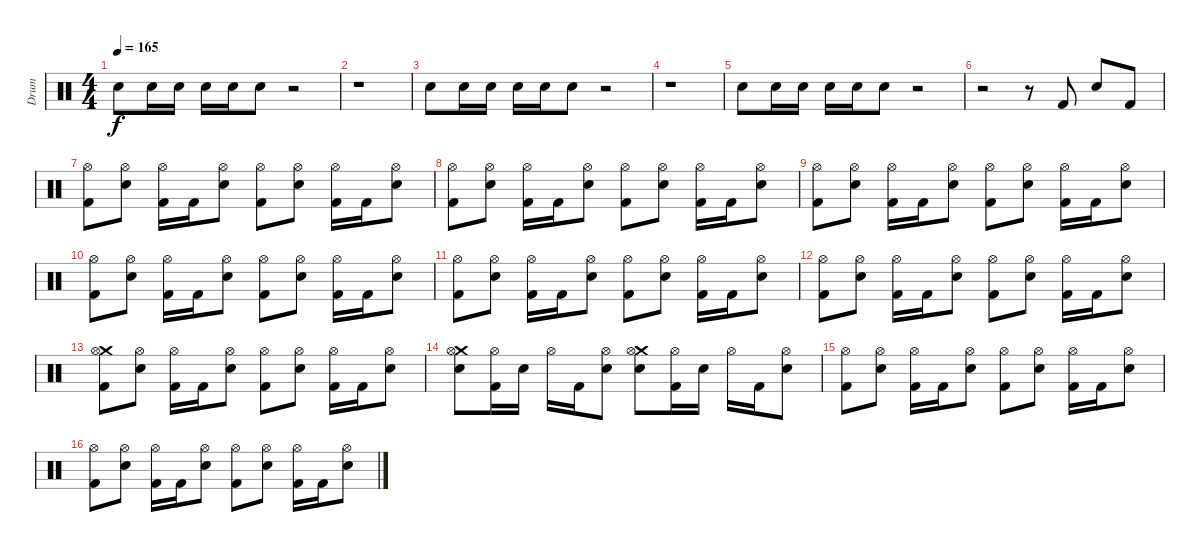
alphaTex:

\track ("Drum" "Drum") {instrument percussion}
\staff {score}
\articulation defaults
\ts (4 4)
\tempo 165
\clef neutral
\ks c "Electric Snare (hit)".8{dy f volume 10} "Electric Snare (hit)".16 "Electric Snare (hit)".16 "Electric Snare (hit)".16 "Electric Snare (hit)".16 "Electric Snare (hit)".8
r.2 |
r.1 |
"Electric Snare (hit)".8{volume 10} "Electric Snare (hit)".16 "Electric Snare (hit)".16 "Electric Snare (hit)".16 "Electric Snare (hit)".16 "Electric Snare (hit)".8 r.2 |
r.1 |
"Electric Snare (hit)".8{volume 10} "Electric Snare (hit)".16 "Electric Snare (hit)".16 "Electric Snare (hit)".16 "Electric Snare (hit)".16 "Electric Snare (hit)".8 r.2 |
r.2 r.8 "Kick (hit) 2".8 "Electric Snare (hit)".8 "Kick (hit) 2".8 |
("Hi-Hat (open)" "Kick (hit) 2").8 ("Hi-Hat (open)" "Electric Snare (hit)").8 ("Hi-Hat (open)" "Kick (hit) 2").16 "Kick (hit) 2".16 ("Hi-Hat (open)" "Electric Snare (hit)").8 ("Hi-Hat (open)" "Kick (hit) 2").8 ("Hi-Hat (open)" "Electric Snare (hit)").8 ("Hi-Hat (open)" "Kick (hit) 2").16 "Kick (hit) 2".16 ("Hi-Hat (open)" "Electric Snare (hit)").8 |
("Hi-Hat (open)" "Kick (hit) 2").8 ("Hi-Hat (open)" "Electric Snare (hit)").8 ("Hi-Hat (open)" "Kick (hit) 2").16 "Kick (hit) 2".16 ("Hi-Hat (open)" "Electric Snare (hit)").8 ("Hi-Hat (open)" "Kick (hit) 2").8 ("Hi-Hat (open)" "Electric Snare (hit)").8 ("Hi-Hat (open)" "Kick (hit) 2").16 "Kick (hit) 2".16 ("Hi-Hat (open)" "Electric Snare (hit)").8 |
("Hi-Hat (open)" "Kick (hit) 2").8 ("Hi-Hat (open)" "Electric Snare (hit)").8 ("Hi-Hat (open)" "Kick (hit) 2").16 "Kick (hit) 2".16 ("Hi-Hat (open)" "Electric Snare (hit)").8 ("Hi-Hat (open)" "Kick (hit) 2").8 ("Hi-Hat (open)" "Electric Snare (hit)").8 ("Hi-Hat (open)" "Kick (hit) 2").16 "Kick (hit) 2".16 ("Hi-Hat (open)" "Electric Snare (hit)").8 |
("Hi-Hat (open)" "Kick (hit) 2").8 ("Hi-Hat (open)" "Electric Snare (hit)").8 ("Hi-Hat (open)" "Kick (hit) 2").16 "Kick (hit) 2".16 ("Hi-Hat (open)" "Electric Snare (hit)").8 ("Hi-Hat (open)" "Kick (hit) 2").8 ("Hi-Hat (open)" "Electric Snare (hit)").8 ("Hi-Hat (open)" "Kick (hit) 2").16 "Kick (hit) 2".16 ("Hi-Hat (open)" "Electric Snare (hit)").8 |
("Hi-Hat (open)" "Kick (hit) 2").8 ("Hi-Hat (open)" "Electric Snare (hit)").8 ("Hi-Hat (open)" "Kick (hit) 2").16 "Kick (hit) 2".16 ("Hi-Hat (open)" "Electric Snare (hit)").8 ("Hi-Hat (open)" "Kick (hit) 2").8 ("Hi-Hat (open)" "Electric Snare (hit)").8 ("Hi-Hat (open)" "Kick (hit) 2").16 "Kick (hit) 2".16 ("Hi-Hat (open)" "Electric Snare (hit)").8 |
("Hi-Hat (open)" "Kick (hit) 2").8 ("Hi-Hat (open)" "Electric Snare (hit)").8 ("Hi-Hat (open)" "Kick (hit) 2").16 "Kick (hit) 2".16 ("Hi-Hat (open)" "Electric Snare (hit)").8 ("Hi-Hat (open)" "Kick (hit) 2").8 ("Hi-Hat (open)" "Electric Snare (hit)").8 ("Hi-Hat (open)" "Kick (hit) 2").16 "Kick (hit) 2".16 ("Hi-Hat (open)" "Electric Snare (hit)").8 |
("Crash medium (hit)" "Hi-Hat (open)" "Kick (hit) 2").8 ("Hi-Hat (open)" "Electric Snare (hit)").8 ("Hi-Hat (open)" "Kick (hit) 2").16 "Kick (hit) 2".16 ("Hi-Hat (open)" "Electric Snare (hit)").8 ("Hi-Hat (open)" "Kick (hit) 2").8 ("Hi-Hat (open)" "Electric Snare (hit)").8 ("Hi-Hat (open)" "Kick (hit) 2").16 "Kick (hit) 2".16 ("Hi-Hat (open)" "Electric Snare (hit)").8 |
("Crash medium (hit)" "Hi-Hat (open)" "Electric Snare (hit)").8 ("Hi-Hat (open)" "Kick (hit) 2").16 "Electric Snare (hit)".16 "Hi-Hat (open)".16 "Kick (hit) 2".16 ("Hi-Hat (open)" "Electric Snare (hit)").8 ("Crash medium (hit)" "Hi-Hat (open)" "Electric Snare (hit)").8 ("Hi-Hat (open)" "Kick (hit) 2").16 "Electric Snare (hit)".16 "Hi-Hat (open)".16 "Kick (hit) 2".16 ("Hi-Hat (open)" "Electric Snare (hit)").8 |
("Hi-Hat (open)" "Kick (hit) 2").8 ("Hi-Hat (open)" "Electric Snare (hit)").8 ("Hi-Hat (open)" "Kick (hit) 2").16 "Kick (hit) 2".16 ("Hi-Hat (open)" "Electric Snare (hit)").8 ("Hi-Hat (open)" "Kick (hit) 2").8 ("Hi-Hat (open)" "Electric Snare (hit)").8 ("Hi-Hat (open)" "Kick (hit) 2").16 "Kick (hit) 2".16 ("Hi-Hat (open)" "Electric Snare (hit)").8 |
("Hi-Hat (open)" "Kick (hit) 2").8 ("Hi-Hat (open)" "Electric Snare (hit)").8 ("Hi-Hat (open)" "Kick (hit) 2").16 "Kick (hit) 2".16 ("Hi-Hat (open)" "Electric Snare (hit)").8 ("Hi-Hat (open)" "Kick (hit) 2").8 ("Hi-Hat (open)" "Electric Snare (hit)").8 ("Hi-Hat (open)" "Kick (hit) 2").16 "Kick (hit) 2".16 ("Hi-Hat (open)" "Electric Snare (hit)").8
